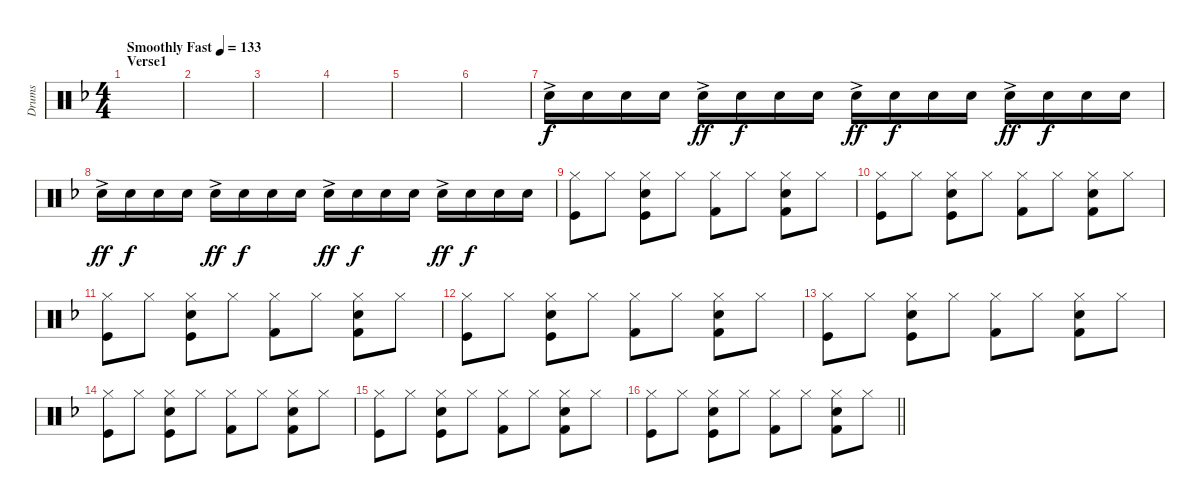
\track ("Drums" "Drums") {instrument percussion}
\staff {score}
\articulation defaults
\ts (4 4)
\section ("" "Verse1")
\tempo (133 "Smoothly Fast")
\clef neutral
\ks f
|
|
|
|
|
|
"Electric Snare (hit)"{ac}.16 "Electric Snare (hit)".16{dy f} "Electric Snare (hit)".16 "Electric Snare (hit)".16 "Electric Snare (hit)"{ac}.16{dy ff} "Electric Snare (hit)".16{dy f} "Electric Snare (hit)".16 "Electric Snare (hit)".16 "Electric Snare (hit)"{ac}.16{dy ff} "Electric Snare (hit)".16{dy f} "Electric Snare (hit)".16 "Electric Snare (hit)".16 "Electric Snare (hit)"{ac}.16{dy ff} "Electric Snare (hit)".16{dy f} "Electric Snare (hit)".16 "Electric Snare (hit)".16 |
"Electric Snare (hit)"{ac}.16{dy ff} "Electric Snare (hit)".16{dy f} "Electric Snare (hit)".16 "Electric Snare (hit)".16 "Electric Snare (hit)"{ac}.16{dy ff} "Electric Snare (hit)".16{dy f} "Electric Snare (hit)".16 "Electric Snare (hit)".16 "Electric Snare (hit)"{ac}.16{dy ff} "Electric Snare (hit)".16{dy f} "Electric Snare (hit)".16 "Electric Snare (hit)".16 "Electric Snare (hit)"{ac}.16{dy ff} "Electric Snare (hit)".16{dy f} "Electric Snare (hit)".16 "Electric Snare (hit)".16 |
("Hi-Hat (closed)" "Kick (hit)").8 "Hi-Hat (closed)".8 ("Hi-Hat (closed)" "Kick (hit)" "Electric Snare (hit)").8 "Hi-Hat (closed)".8 ("Hi-Hat (closed)" "Kick (hit) 2").8 "Hi-Hat (closed)".8 ("Kick (hit) 2" "Hi-Hat (closed)" "Electric Snare (hit)").8 "Hi-Hat (closed)".8 |
("Hi-Hat (closed)" "Kick (hit)").8 "Hi-Hat (closed)".8 ("Hi-Hat (closed)" "Kick (hit)" "Electric Snare (hit)").8 "Hi-Hat (closed)".8 ("Hi-Hat (closed)" "Kick (hit) 2").8 "Hi-Hat (closed)".8 ("Kick (hit) 2" "Hi-Hat (closed)" "Electric Snare (hit)").8 "Hi-Hat (closed)".8 |
("Hi-Hat (closed)" "Kick (hit)").8 "Hi-Hat (closed)".8 ("Hi-Hat (closed)" "Kick (hit)" "Electric Snare (hit)").8 "Hi-Hat (closed)".8 ("Hi-Hat (closed)" "Kick (hit) 2").8 "Hi-Hat (closed)".8 ("Kick (hit) 2" "Hi-Hat (closed)" "Electric Snare (hit)").8 "Hi-Hat (closed)".8 |
("Hi-Hat (closed)" "Kick (hit)").8 "Hi-Hat (closed)".8 ("Hi-Hat (closed)" "Kick (hit)" "Electric Snare (hit)").8 "Hi-Hat (closed)".8 ("Hi-Hat (closed)" "Kick (hit) 2").8 "Hi-Hat (closed)".8 ("Kick (hit) 2" "Hi-Hat (closed)" "Electric Snare (hit)").8 "Hi-Hat (closed)".8 |
("Hi-Hat (closed)" "Kick (hit)").8 "Hi-Hat (closed)".8 ("Hi-Hat (closed)" "Kick (hit)" "Electric Snare (hit)").8 "Hi-Hat (closed)".8 ("Hi-Hat (closed)" "Kick (hit) 2").8 "Hi-Hat (closed)".8 ("Kick (hit) 2" "Hi-Hat (closed)" "Electric Snare (hit)").8 "Hi-Hat (closed)".8 |
("Hi-Hat (closed)" "Kick (hit)").8 "Hi-Hat (closed)".8 ("Hi-Hat (closed)" "Kick (hit)" "Electric Snare (hit)").8 "Hi-Hat (closed)".8 ("Hi-Hat (closed)" "Kick (hit) 2").8 "Hi-Hat (closed)".8 ("Kick (hit) 2" "Hi-Hat (closed)" "Electric Snare (hit)").8 "Hi-Hat (closed)".8 |
("Hi-Hat (closed)" "Kick (hit)").8 "Hi-Hat (closed)".8 ("Hi-Hat (closed)" "Kick (hit)" "Electric Snare (hit)").8 "Hi-Hat (closed)".8 ("Hi-Hat (closed)" "Kick (hit) 2").8 "Hi-Hat (closed)".8 ("Kick (hit) 2" "Hi-Hat (closed)" "Electric Snare (hit)").8 "Hi-Hat (closed)".8 |
\barLineRight lightlight
("Hi-Hat (closed)" "Kick (hit)").8 "Hi-Hat (closed)".8 ("Hi-Hat (closed)" "Kick (hit)" "Electric Snare (hit)").8 "Hi-Hat (closed)".8 ("Hi-Hat (closed)" "Kick (hit) 2").8 "Hi-Hat (closed)".8 ("Kick (hit) 2" "Hi-Hat (closed)" "Electric Snare (hit)").8 "Hi-Hat (closed)".8
